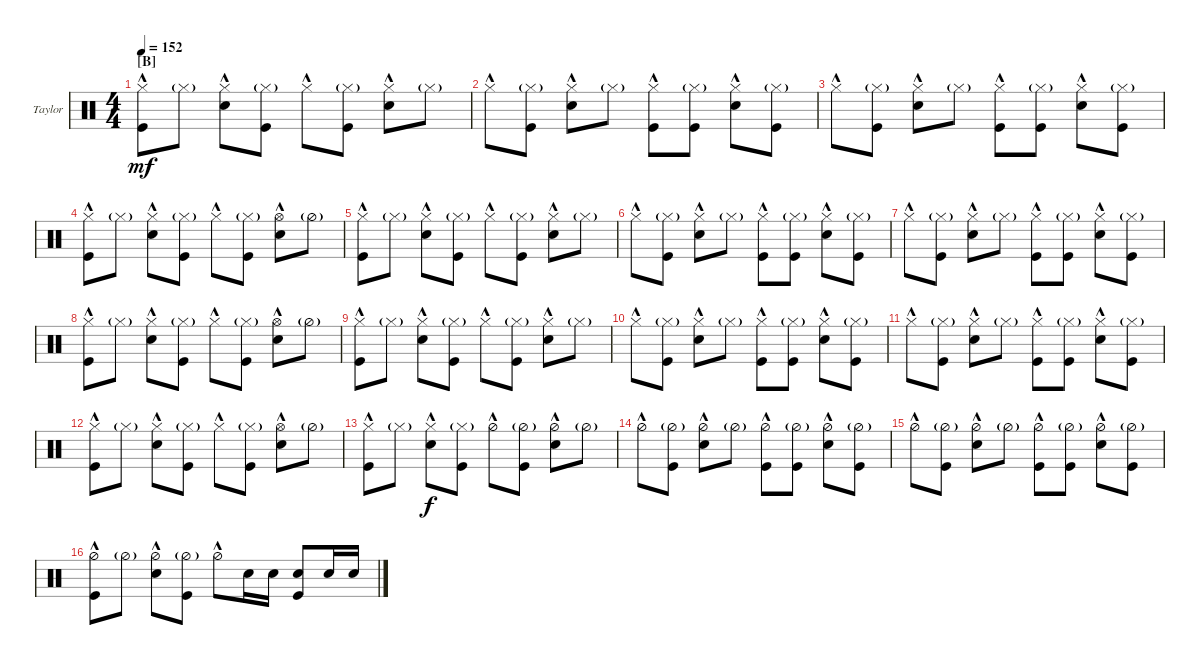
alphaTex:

\defaultSystemsLayout 4
\bracketExtendMode nobrackets
\firstSystemTrackNameOrientation horizontal
\otherSystemsTrackNameOrientation horizontal
\track ("Drums (Taylor Hawkins)" "Taylor") {instrument percussion}
\staff {score}
\articulation defaults
\ts (4 4)
\section ("B" "")
\tempo 152
\clef neutral
\ks c
("Kick (hit)" "Hi-Hat (closed)"{hac}).8{dy mf} "Hi-Hat (closed)"{g}.8 ("Snare (hit) 2" "Hi-Hat (closed)"{hac}).8 ("Kick (hit)" "Hi-Hat (closed)"{g}).8 "Hi-Hat (closed)"{hac}.8 ("Hi-Hat (closed)"{g} "Kick (hit)").8 ("Hi-Hat (closed)"{hac} "Snare (hit) 2").8 "Hi-Hat (closed)"{g}.8 |
"Hi-Hat (closed)"{hac}.8 ("Kick (hit)" "Hi-Hat (closed)"{g}).8 ("Snare (hit) 2" "Hi-Hat (closed)"{hac}).8 "Hi-Hat (closed)"{g}.8 ("Kick (hit)" "Hi-Hat (closed)"{hac}).8 ("Kick (hit)" "Hi-Hat (closed)"{g}).8 ("Snare (hit) 2" "Hi-Hat (closed)"{hac}).8 ("Hi-Hat (closed)"{g} "Kick (hit)").8 |
"Hi-Hat (closed)"{hac}.8 ("Hi-Hat (closed)"{g} "Kick (hit)").8 ("Hi-Hat (closed)"{hac} "Snare (hit) 2").8 "Hi-Hat (closed)"{g}.8 ("Hi-Hat (closed)"{hac} "Kick (hit)").8 ("Hi-Hat (closed)"{g} "Kick (hit)").8 ("Hi-Hat (closed)"{hac} "Snare (hit) 2").8 ("Hi-Hat (closed)"{g} "Kick (hit)").8 |
("Hi-Hat (closed)"{hac} "Kick (hit)").8 "Hi-Hat (closed)"{g}.8 ("Hi-Hat (closed)"{hac} "Snare (hit) 2").8 ("Hi-Hat (closed)"{g} "Kick (hit)").8 "Hi-Hat (closed)"{hac}.8 ("Hi-Hat (closed)"{g} "Kick (hit)").8 ("Hi-Hat (open)"{hac} "Snare (hit) 2").8 "Hi-Hat (half)"{g}.8 |
("Kick (hit)" "Hi-Hat (closed)"{hac}).8 "Hi-Hat (closed)"{g}.8 ("Snare (hit) 2" "Hi-Hat (closed)"{hac}).8 ("Kick (hit)" "Hi-Hat (closed)"{g}).8 "Hi-Hat (closed)"{hac}.8 ("Hi-Hat (closed)"{g} "Kick (hit)").8 ("Hi-Hat (closed)"{hac} "Snare (hit) 2").8 "Hi-Hat (closed)"{g}.8 |
"Hi-Hat (closed)"{hac}.8 ("Kick (hit)" "Hi-Hat (closed)"{g}).8 ("Snare (hit) 2" "Hi-Hat (closed)"{hac}).8 "Hi-Hat (closed)"{g}.8 ("Kick (hit)" "Hi-Hat (closed)"{hac}).8 ("Kick (hit)" "Hi-Hat (closed)"{g}).8 ("Snare (hit) 2" "Hi-Hat (closed)"{hac}).8 ("Hi-Hat (closed)"{g} "Kick (hit)").8 |
"Hi-Hat (closed)"{hac}.8 ("Hi-Hat (closed)"{g} "Kick (hit)").8 ("Hi-Hat (closed)"{hac} "Snare (hit) 2").8 "Hi-Hat (closed)"{g}.8 ("Hi-Hat (closed)"{hac} "Kick (hit)").8 ("Hi-Hat (closed)"{g} "Kick (hit)").8 ("Hi-Hat (closed)"{hac} "Snare (hit) 2").8 ("Hi-Hat (closed)"{g} "Kick (hit)").8 |
("Hi-Hat (closed)"{hac} "Kick (hit)").8 "Hi-Hat (closed)"{g}.8 ("Hi-Hat (closed)"{hac} "Snare (hit) 2").8 ("Hi-Hat (closed)"{g} "Kick (hit)").8 "Hi-Hat (closed)"{hac}.8 ("Hi-Hat (closed)"{g} "Kick (hit)").8 ("Hi-Hat (open)"{hac} "Snare (hit) 2").8 "Hi-Hat (half)"{g}.8 |
("Kick (hit)" "Hi-Hat (closed)"{hac}).8 "Hi-Hat (closed)"{g}.8 ("Snare (hit) 2" "Hi-Hat (closed)"{hac}).8 ("Kick (hit)" "Hi-Hat (closed)"{g}).8 "Hi-Hat (closed)"{hac}.8 ("Hi-Hat (closed)"{g} "Kick (hit)").8 ("Hi-Hat (closed)"{hac} "Snare (hit) 2").8 "Hi-Hat (closed)"{g}.8 |
"Hi-Hat (closed)"{hac}.8 ("Kick (hit)" "Hi-Hat (closed)"{g}).8 ("Snare (hit) 2" "Hi-Hat (closed)"{hac}).8 "Hi-Hat (closed)"{g}.8 ("Kick (hit)" "Hi-Hat (closed)"{hac}).8 ("Kick (hit)" "Hi-Hat (closed)"{g}).8 ("Snare (hit) 2" "Hi-Hat (closed)"{hac}).8 ("Hi-Hat (closed)"{g} "Kick (hit)").8 |
"Hi-Hat (closed)"{hac}.8 ("Hi-Hat (closed)"{g} "Kick (hit)").8 ("Hi-Hat (closed)"{hac} "Snare (hit) 2").8 "Hi-Hat (closed)"{g}.8 ("Hi-Hat (closed)"{hac} "Kick (hit)").8 ("Hi-Hat (closed)"{g} "Kick (hit)").8 ("Hi-Hat (closed)"{hac} "Snare (hit) 2").8 ("Hi-Hat (closed)"{g} "Kick (hit)").8 |
("Hi-Hat (closed)"{hac} "Kick (hit)").8 "Hi-Hat (closed)"{g}.8 ("Hi-Hat (closed)"{hac} "Snare (hit) 2").8 ("Hi-Hat (closed)"{g} "Kick (hit)").8 "Hi-Hat (closed)"{hac}.8 ("Hi-Hat (closed)"{g} "Kick (hit)").8 ("Hi-Hat (open)"{hac} "Snare (hit) 2").8 "Hi-Hat (half)"{g}.8 |
("Kick (hit)" "Hi-Hat (closed)"{hac}).8 "Hi-Hat (closed)"{g}.8 ("Snare (hit) 2" "Hi-Hat (closed)"{hac}).8{dy f} ("Kick (hit)" "Hi-Hat (closed)"{g}).8 "Hi-Hat (half)"{hac}.8 ("Hi-Hat (half)"{g} "Kick (hit)").8 ("Hi-Hat (half)"{hac} "Snare (hit) 2").8 "Hi-Hat (half)"{g}.8 |
"Hi-Hat (half)"{hac}.8 ("Kick (hit)" "Hi-Hat (half)"{g}).8 ("Snare (hit) 2" "Hi-Hat (half)"{hac}).8 "Hi-Hat (half)"{g}.8 ("Kick (hit)" "Hi-Hat (half)"{hac}).8 ("Kick (hit)" "Hi-Hat (half)"{g}).8 ("Snare (hit) 2" "Hi-Hat (half)"{hac}).8 ("Hi-Hat (half)"{g} "Kick (hit)").8 |
"Hi-Hat (half)"{hac}.8 ("Hi-Hat (half)"{g} "Kick (hit)").8 ("Hi-Hat (half)"{hac} "Snare (hit) 2").8 "Hi-Hat (half)"{g}.8 ("Hi-Hat (half)"{hac} "Kick (hit)").8 ("Hi-Hat (half)"{g} "Kick (hit)").8 ("Hi-Hat (half)"{hac} "Snare (hit) 2").8 ("Hi-Hat (half)"{g} "Kick (hit)").8 |
("Hi-Hat (half)"{hac} "Kick (hit)").8 "Hi-Hat (half)"{g}.8 ("Hi-Hat (half)"{hac} "Snare (hit) 2").8 ("Hi-Hat (half)"{g} "Kick (hit)").8 "Hi-Hat (half)"{hac}.8 "Snare (hit) 2".16 "Snare (hit) 2".16 ("Snare (hit) 2" "Kick (hit)").8 "Snare (hit) 2".16 "Snare (hit) 2".16
